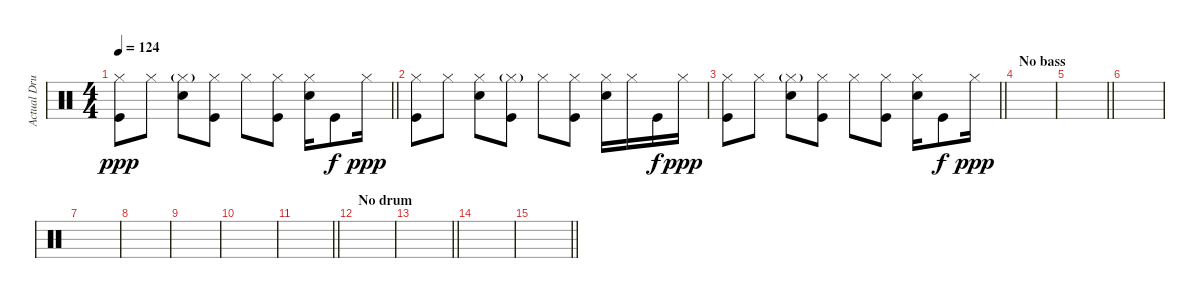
\track ("Actual Drums" "Actual Dru") {instrument percussion}
\staff {score}
\articulation defaults
\ts (4 4)
\tempo 124
\clef neutral
\barLineRight lightlight
\ks c
("Hi-Hat (closed)" "Kick (hit)").8{dy ppp} "Hi-Hat (closed)".8 ("Hi-Hat (closed)"{g} "Snare (hit) 2").8 ("Hi-Hat (closed)" "Kick (hit)").8 "Hi-Hat (closed)".8 ("Hi-Hat (closed)" "Kick (hit)").8 ("Hi-Hat (closed)" "Snare (hit) 2").16 "Kick (hit)".8{dy f} "Hi-Hat (closed)".16{dy ppp} |
("Hi-Hat (closed)" "Kick (hit)").8 "Hi-Hat (closed)".8 ("Hi-Hat (closed)" "Snare (hit) 2").8 ("Hi-Hat (closed)"{g} "Kick (hit)").8 "Hi-Hat (closed)".8 ("Hi-Hat (closed)" "Kick (hit)").8 ("Hi-Hat (closed)" "Snare (hit) 2").16 "Hi-Hat (closed)".16 "Kick (hit)".16{dy f} "Hi-Hat (closed)".16{dy ppp} |
\barLineRight lightlight
("Hi-Hat (closed)" "Kick (hit)").8 "Hi-Hat (closed)".8 ("Hi-Hat (closed)"{g} "Snare (hit) 2").8 ("Hi-Hat (closed)" "Kick (hit)").8 "Hi-Hat (closed)".8 ("Hi-Hat (closed)" "Kick (hit)").8 ("Hi-Hat (closed)" "Snare (hit) 2").16 "Kick (hit)".8{dy f} "Hi-Hat (closed)".16{dy ppp} |
\section ("" "No bass")
|
\barLineRight lightlight
|
|
|
|
|
|
\barLineRight lightlight
|
\section ("" "No drum")
|
\barLineRight lightlight
|
|
\barLineRight lightlight
